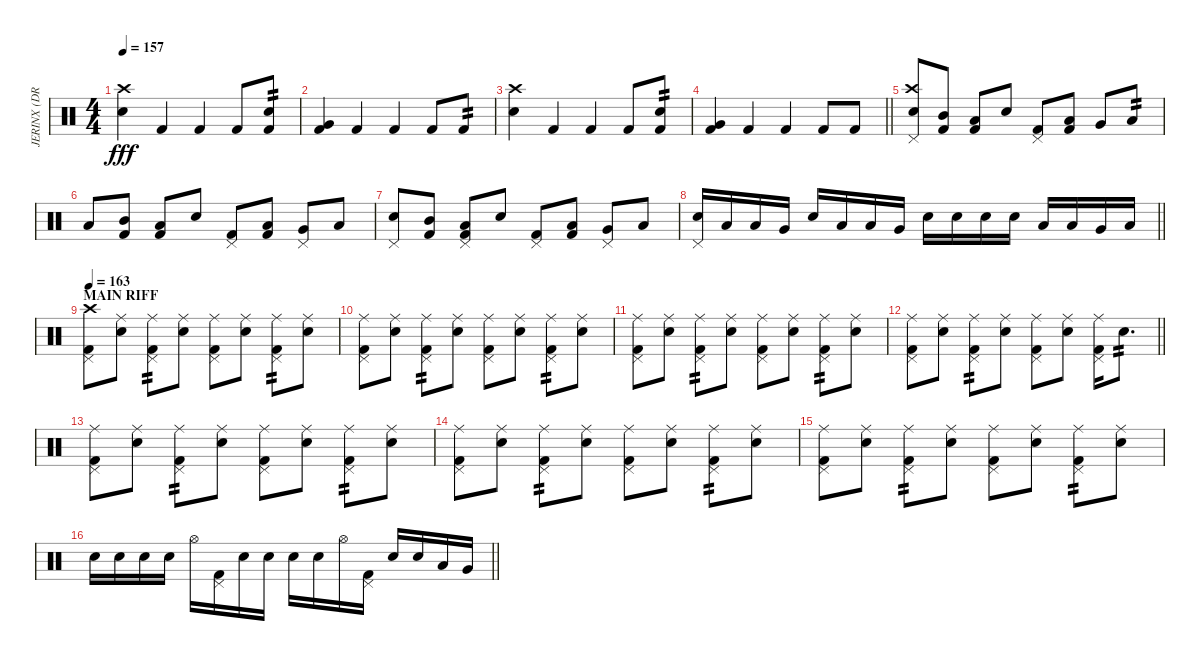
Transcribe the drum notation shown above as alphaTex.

\track ("JERINX (DRUM)" "JERINX (DR") {instrument percussion}
\staff {score}
\articulation defaults
\ts (4 4)
\tempo 157
\clef neutral
\ks c
("Snare (hit) 2" "Crash high (hit)").4{dy fff} "Kick (hit) 2".4 "Kick (hit) 2".4 "Kick (hit) 2".8 ("Snare (hit) 2" "Kick (hit) 2").8{tp 2} |
("Kick (hit) 2" "Very Low Tom (hit)").4 "Kick (hit) 2".4 "Kick (hit) 2".4 "Kick (hit) 2".8 "Kick (hit) 2".8{tp 2} |
("Snare (hit) 2" "Crash high (hit)").4 "Kick (hit) 2".4 "Kick (hit) 2".4 "Kick (hit) 2".8 ("Snare (hit) 2" "Kick (hit) 2").8{tp 2} |
\barLineRight lightlight
("Kick (hit) 2" "Very Low Tom (hit)").4 "Kick (hit) 2".4 "Kick (hit) 2".4 "Kick (hit) 2".8 "Kick (hit) 2".8 |
("Pedal Hi-Hat (hit)" "Snare (hit) 2" "Crash high (hit)").8 ("Kick (hit) 2" "Mid Tom (hit)").8 ("Kick (hit) 2" "Low Tom (hit)").8 "Snare (hit) 2".8 ("Pedal Hi-Hat (hit)" "Kick (hit) 2").8 ("Kick (hit) 2" "Low Tom (hit)").8 "Very Low Tom (hit)".8 "Low Floor Tom (hit)".8{tp 2} |
"Low Floor Tom (hit)".8 ("Kick (hit) 2" "Mid Tom (hit)").8 ("Kick (hit) 2" "Low Tom (hit)").8 "Snare (hit) 2".8 ("Pedal Hi-Hat (hit)" "Kick (hit) 2").8 ("Kick (hit) 2" "Low Tom (hit)").8 ("Pedal Hi-Hat (hit)" "Very Low Tom (hit)").8 "Low Floor Tom (hit)".8 |
("Pedal Hi-Hat (hit)" "Snare (hit) 2").8 ("Kick (hit) 2" "Mid Tom (hit)").8 ("Pedal Hi-Hat (hit)" "Kick (hit) 2" "Low Tom (hit)").8 "Snare (hit) 2".8 ("Pedal Hi-Hat (hit)" "Kick (hit) 2").8 ("Kick (hit) 2" "Low Tom (hit)").8 ("Pedal Hi-Hat (hit)" "Very Low Tom (hit)").8 "Low Floor Tom (hit)".8 |
\barLineRight lightlight
("Pedal Hi-Hat (hit)" "Snare (hit) 2").16 "Low Tom (hit)".16 "Low Tom (hit)".16 "Very Low Tom (hit)".16 "Snare (hit) 2".16 "Low Tom (hit)".16 "Low Tom (hit)".16 "Very Low Tom (hit)".16 "Snare (hit) 2".16 "Snare (hit) 2".16 "Snare (hit) 2".16 "Snare (hit) 2".16 "Low Tom (hit)".16 "Low Tom (hit)".16 "Very Low Tom (hit)".16 "Low Floor Tom (hit)".16 |
\section ("" "MAIN RIFF")
\tempo 163
("Pedal Hi-Hat (hit)" "Kick (hit) 2" "Crash high (hit)").8 ("Snare (hit) 2" "Ride (middle)").8 ("Pedal Hi-Hat (hit)" "Kick (hit) 2" "Ride (middle)").8{tp 2} ("Snare (hit) 2" "Ride (middle)").8 ("Pedal Hi-Hat (hit)" "Kick (hit) 2" "Ride (middle)").8 ("Snare (hit) 2" "Ride (middle)").8 ("Pedal Hi-Hat (hit)" "Kick (hit) 2" "Ride (middle)").8{tp 2} ("Snare (hit) 2" "Ride (middle)").8 |
("Pedal Hi-Hat (hit)" "Kick (hit) 2" "Ride (middle)").8 ("Snare (hit) 2" "Ride (middle)").8 ("Pedal Hi-Hat (hit)" "Kick (hit) 2" "Ride (middle)").8{tp 2} ("Snare (hit) 2" "Ride (middle)").8 ("Pedal Hi-Hat (hit)" "Kick (hit) 2" "Ride (middle)").8 ("Snare (hit) 2" "Ride (middle)").8 ("Pedal Hi-Hat (hit)" "Kick (hit) 2" "Ride (middle)").8{tp 2} ("Snare (hit) 2" "Ride (middle)").8 |
("Pedal Hi-Hat (hit)" "Kick (hit) 2" "Ride (middle)").8 ("Snare (hit) 2" "Ride (middle)").8 ("Pedal Hi-Hat (hit)" "Kick (hit) 2" "Ride (middle)").8{tp 2} ("Snare (hit) 2" "Ride (middle)").8 ("Pedal Hi-Hat (hit)" "Kick (hit) 2" "Ride (middle)").8 ("Snare (hit) 2" "Ride (middle)").8 ("Pedal Hi-Hat (hit)" "Kick (hit) 2" "Ride (middle)").8{tp 2} ("Snare (hit) 2" "Ride (middle)").8 |
\barLineRight lightlight
("Pedal Hi-Hat (hit)" "Kick (hit) 2" "Ride (middle)").8 ("Snare (hit) 2" "Ride (middle)").8 ("Pedal Hi-Hat (hit)" "Kick (hit) 2" "Ride (middle)").8{tp 2} ("Snare (hit) 2" "Ride (middle)").8 ("Pedal Hi-Hat (hit)" "Kick (hit) 2" "Ride (middle)").8 ("Snare (hit) 2" "Ride (middle)").8 ("Pedal Hi-Hat (hit)" "Kick (hit) 2" "Ride (middle)").16 "Snare (hit) 2".8{d tp 2} |
("Pedal Hi-Hat (hit)" "Kick (hit) 2" "Ride (middle)").8 ("Snare (hit) 2" "Ride (middle)").8 ("Pedal Hi-Hat (hit)" "Kick (hit) 2" "Ride (middle)").8{tp 2} ("Snare (hit) 2" "Ride (middle)").8 ("Pedal Hi-Hat (hit)" "Kick (hit) 2" "Ride (middle)").8 ("Snare (hit) 2" "Ride (middle)").8 ("Pedal Hi-Hat (hit)" "Kick (hit) 2" "Ride (middle)").8{tp 2} ("Snare (hit) 2" "Ride (middle)").8 |
("Pedal Hi-Hat (hit)" "Kick (hit) 2" "Ride (middle)").8 ("Snare (hit) 2" "Ride (middle)").8 ("Pedal Hi-Hat (hit)" "Kick (hit) 2" "Ride (middle)").8{tp 2} ("Snare (hit) 2" "Ride (middle)").8 ("Pedal Hi-Hat (hit)" "Kick (hit) 2" "Ride (middle)").8 ("Snare (hit) 2" "Ride (middle)").8 ("Pedal Hi-Hat (hit)" "Kick (hit) 2" "Ride (middle)").8{tp 2} ("Snare (hit) 2" "Ride (middle)").8 |
("Pedal Hi-Hat (hit)" "Kick (hit) 2" "Ride (middle)").8 ("Snare (hit) 2" "Ride (middle)").8 ("Pedal Hi-Hat (hit)" "Kick (hit) 2" "Ride (middle)").8{tp 2} ("Snare (hit) 2" "Ride (middle)").8 ("Pedal Hi-Hat (hit)" "Kick (hit) 2" "Ride (middle)").8 ("Snare (hit) 2" "Ride (middle)").8 ("Pedal Hi-Hat (hit)" "Kick (hit) 2" "Ride (middle)").8{tp 2} ("Snare (hit) 2" "Ride (middle)").8 |
\barLineRight lightlight "Snare (hit) 2".16 "Snare (hit) 2".16 "Snare (hit) 2".16 "Snare (hit) 2".16 "Hi-Hat (open)".16
("Pedal Hi-Hat (hit)" "Kick (hit) 2").16 "Snare (hit) 2".16 "Snare (hit) 2".16 "Snare (hit) 2".16 "Snare (hit) 2".16 "Hi-Hat (open)".16 ("Pedal Hi-Hat (hit)" "Kick (hit) 2").16 "Snare (hit) 2".16 "Snare (hit) 2".16 "Low Tom (hit)".16 "Very Low Tom (hit)".16
